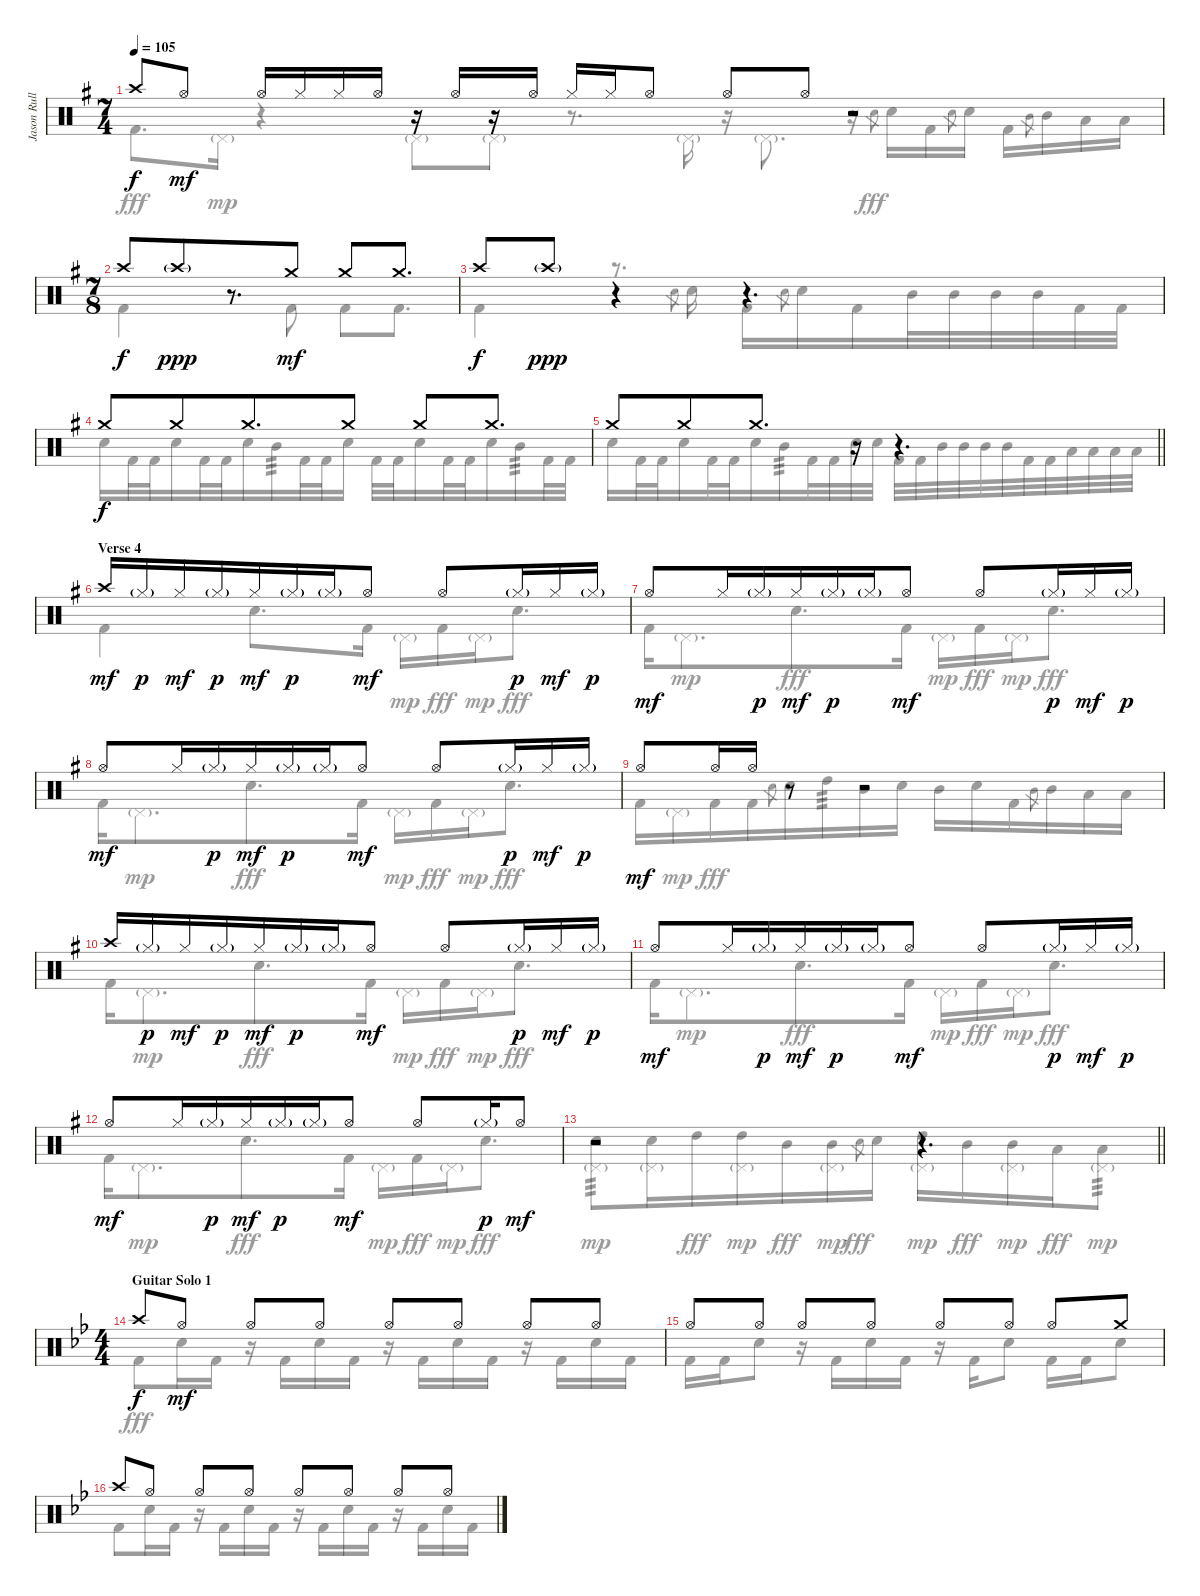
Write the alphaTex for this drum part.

\track ("Jason Rullo Drums" "Jason Rull") {instrument percussion}
\staff {score}
\articulation defaults
\voice
\ts (7 4)
\tempo 105
\clef neutral
\ks eminor "Crash high (hit)".8{dy f} "Hi-Hat (open)".8{dy mf} "Hi-Hat (open)".16 "Hi-Hat (closed)".16 "Hi-Hat (closed)".16 "Hi-Hat (open)".16
r.16 "Hi-Hat (open)".16 r.16 "Hi-Hat (open)".16 "Hi-Hat (closed)".16 "Hi-Hat (closed)".16 "Hi-Hat (open)".8 "Hi-Hat (open)".8 "Hi-Hat (open)".8 r.2 |
\ts (7 8)
"Crash high (hit)".8{dy f} "Crash high (hit)"{g}.8{dy ppp} r.8{d} "Crash medium (hit)".8{dy mf} "Crash medium (hit)".8 "Crash medium (hit)".8{d} |
"Crash high (hit)".8{dy f} "Crash high (hit)"{g}.8{dy ppp} r.4 r.4{d} |
"Crash medium (hit)".8{dy f} "Crash medium (hit)".8 "Crash medium (hit)".8{d} "Crash medium (hit)".8 "Crash medium (hit)".8 "Crash medium (hit)".8{d} |
\barLineRight lightlight "Crash medium (hit)".8 "Crash medium (hit)".8 "Crash medium (hit)".8{d}
r.16 r.4{d} |
\section ("" "Verse 4")
"Crash high (hit)".16{dy mf} "Hi-Hat (closed)"{g}.16{dy p} "Hi-Hat (closed)".16{dy mf} "Hi-Hat (closed)"{g}.16{dy p} "Hi-Hat (closed)".16{dy mf} "Hi-Hat (closed)"{g}.16{dy p} "Hi-Hat (closed)"{g}.16 "Hi-Hat (open)".8{dy mf} "Hi-Hat (open)".8 "Hi-Hat (closed)"{g}.16{dy p} "Hi-Hat (closed)".16{dy mf} "Hi-Hat (closed)"{g}.16{dy p} |
"Hi-Hat (open)".8{dy mf} "Hi-Hat (closed)".16 "Hi-Hat (closed)"{g}.16{dy p} "Hi-Hat (closed)".16{dy mf} "Hi-Hat (closed)"{g}.16{dy p} "Hi-Hat (closed)"{g}.16 "Hi-Hat (open)".8{dy mf} "Hi-Hat (open)".8 "Hi-Hat (closed)"{g}.16{dy p} "Hi-Hat (closed)".16{dy mf} "Hi-Hat (closed)"{g}.16{dy p} |
"Hi-Hat (open)".8{dy mf} "Hi-Hat (closed)".16 "Hi-Hat (closed)"{g}.16{dy p} "Hi-Hat (closed)".16{dy mf} "Hi-Hat (closed)"{g}.16{dy p} "Hi-Hat (closed)"{g}.16 "Hi-Hat (open)".8{dy mf} "Hi-Hat (open)".8 "Hi-Hat (closed)"{g}.16{dy p} "Hi-Hat (closed)".16{dy mf} "Hi-Hat (closed)"{g}.16{dy p} |
"Hi-Hat (open)".8{dy mf} "Hi-Hat (open)".16 "Hi-Hat (open)".16 r.8 r.2 |
"Crash high (hit)".16 "Hi-Hat (closed)"{g}.16{dy p} "Hi-Hat (closed)".16{dy mf} "Hi-Hat (closed)"{g}.16{dy p} "Hi-Hat (closed)".16{dy mf} "Hi-Hat (closed)"{g}.16{dy p} "Hi-Hat (closed)"{g}.16 "Hi-Hat (open)".8{dy mf} "Hi-Hat (open)".8 "Hi-Hat (closed)"{g}.16{dy p} "Hi-Hat (closed)".16{dy mf} "Hi-Hat (closed)"{g}.16{dy p} |
"Hi-Hat (open)".8{dy mf} "Hi-Hat (closed)".16 "Hi-Hat (closed)"{g}.16{dy p} "Hi-Hat (closed)".16{dy mf} "Hi-Hat (closed)"{g}.16{dy p} "Hi-Hat (closed)"{g}.16 "Hi-Hat (open)".8{dy mf} "Hi-Hat (open)".8 "Hi-Hat (closed)"{g}.16{dy p} "Hi-Hat (closed)".16{dy mf} "Hi-Hat (closed)"{g}.16{dy p} |
"Hi-Hat (open)".8{dy mf} "Hi-Hat (closed)".16 "Hi-Hat (closed)"{g}.16{dy p} "Hi-Hat (closed)".16{dy mf} "Hi-Hat (closed)"{g}.16{dy p} "Hi-Hat (closed)"{g}.16 "Hi-Hat (open)".8{dy mf} "Hi-Hat (open)".8 "Hi-Hat (closed)"{g}.16{dy p} "Hi-Hat (open)".8{dy mf} |
\barLineRight lightlight
r.2 r.4{d} |
\ts (4 4)
\section ("" "Guitar Solo 1")
\ks gminor "Crash high (hit)".8{dy f} "Hi-Hat (open)".8{dy mf} "Hi-Hat (open)".8 "Hi-Hat (open)".8 "Hi-Hat (open)".8 "Hi-Hat (open)".8 "Hi-Hat (open)".8 "Hi-Hat (open)".8
|
"Hi-Hat (open)".8 "Hi-Hat (open)".8 "Hi-Hat (open)".8 "Hi-Hat (open)".8 "Hi-Hat (open)".8 "Hi-Hat (open)".8 "Hi-Hat (open)".8 "Crash medium (hit)".8 |
"Crash high (hit)".8 "Hi-Hat (open)".8 "Hi-Hat (open)".8 "Hi-Hat (open)".8 "Hi-Hat (open)".8 "Hi-Hat (open)".8 "Hi-Hat (open)".8 "Hi-Hat (open)".8
\voice
\clef neutral
\ottava regular
\simile none
\ks eminor "Kick (hit) 2".8{d dy fff} "Pedal Hi-Hat (hit)"{g}.16{dy mp}
r.4 "Pedal Hi-Hat (hit)"{g}.8 "Pedal Hi-Hat (hit)"{g}.8 r.8{d} "Pedal Hi-Hat (hit)"{g}.16 r.16 "Pedal Hi-Hat (hit)"{g}.8{d} r.16 "Electric Snare (hit)".8{gr dy fff} "Electric Snare (hit)".16 "Kick (hit) 2".16 "Electric Snare (hit)".8{gr} "Electric Snare (hit)".16 "Kick (hit) 2".16 "Mid Tom (hit)".8{gr} "Mid Tom (hit)".16 "Low Tom (hit)".16 "Low Tom (hit)".16 |
"Kick (hit) 2".4 r.8{d} "Kick (hit) 2".8 "Kick (hit) 2".8 "Kick (hit) 2".8{d} |
"Kick (hit) 2".4 r.8{d} "Electric Snare (hit)".8{gr} "Electric Snare (hit)".16 "Kick (hit) 2".16 "Electric Snare (hit)".8{gr} "Electric Snare (hit)".16 "Kick (hit) 2".16 "Mid Tom (hit)".32 "Mid Tom (hit)".32 "Mid Tom (hit)".32 "Mid Tom (hit)".32 "Kick (hit) 2".32 "Kick (hit) 2".32 |
"Electric Snare (hit)".16 "Kick (hit) 2".32 "Kick (hit) 2".32 "Electric Snare (hit)".16 "Kick (hit) 2".32 "Kick (hit) 2".32 "Electric Snare (hit)".16 "Mid Tom (hit)".16{tp 3} "Kick (hit) 2".32 "Kick (hit) 2".32 "Electric Snare (hit)".16 "Kick (hit) 2".32 "Kick (hit) 2".32 "Electric Snare (hit)".16 "Kick (hit) 2".32 "Kick (hit) 2".32 "Electric Snare (hit)".16 "Mid Tom (hit)".16{tp 3} "Kick (hit) 2".32 "Kick (hit) 2".32 |
\barLineRight lightlight "Electric Snare (hit)".16 "Kick (hit) 2".32 "Kick (hit) 2".32 "Electric Snare (hit)".16 "Kick (hit) 2".32 "Kick (hit) 2".32 "Electric Snare (hit)".16 "Mid Tom (hit)".16{tp 3} "Kick (hit) 2".32 "Kick (hit) 2".32 "Electric Snare (hit)".32 "Electric Snare (hit)".32 "Kick (hit) 2".32 "Kick (hit) 2".32 "Mid Tom (hit)".32 "Mid Tom (hit)".32 "Mid Tom (hit)".32 "Mid Tom (hit)".32 "Kick (hit) 2".32 "Kick (hit) 2".32 "Low Tom (hit)".32 "Low Tom (hit)".32 "Low Tom (hit)".32 "Low Tom (hit)".32
|
"Kick (hit) 2".4 "Electric Snare (hit)".8{d} "Kick (hit) 2".16 "Pedal Hi-Hat (hit)"{g}.16{dy mp} "Kick (hit) 2".16{dy fff} "Pedal Hi-Hat (hit)"{g}.16{dy mp} "Electric Snare (hit)".8{d dy fff} |
"Kick (hit) 2".16 "Pedal Hi-Hat (hit)"{g}.8{d dy mp} "Electric Snare (hit)".8{d dy fff} "Kick (hit) 2".16 "Pedal Hi-Hat (hit)"{g}.16{dy mp} "Kick (hit) 2".16{dy fff} "Pedal Hi-Hat (hit)"{g}.16{dy mp} "Electric Snare (hit)".8{d dy fff} |
"Kick (hit) 2".16 "Pedal Hi-Hat (hit)"{g}.8{d dy mp} "Electric Snare (hit)".8{d dy fff} "Kick (hit) 2".16 "Pedal Hi-Hat (hit)"{g}.16{dy mp} "Kick (hit) 2".16{dy fff} "Pedal Hi-Hat (hit)"{g}.16{dy mp} "Electric Snare (hit)".8{d dy fff} |
"Kick (hit) 2".16 "Pedal Hi-Hat (hit)"{g}.16{dy mp} "Kick (hit) 2".16{dy fff} "Kick (hit) 2".16 "Electric Snare (hit)".8{gr} "Electric Snare (hit)".16 "High Tom (hit)".16{tp 3} "Mid Tom (hit)".16 "Electric Snare (hit)".16 "Mid Tom (hit)".16 "Electric Snare (hit)".16 "Kick (hit) 2".16 "Mid Tom (hit)".8{gr} "Mid Tom (hit)".16 "Low Tom (hit)".16 "Low Tom (hit)".16 |
"Kick (hit) 2".16 "Pedal Hi-Hat (hit)"{g}.8{d dy mp} "Electric Snare (hit)".8{d dy fff} "Kick (hit) 2".16 "Pedal Hi-Hat (hit)"{g}.16{dy mp} "Kick (hit) 2".16{dy fff} "Pedal Hi-Hat (hit)"{g}.16{dy mp} "Electric Snare (hit)".8{d dy fff} |
"Kick (hit) 2".16 "Pedal Hi-Hat (hit)"{g}.8{d dy mp} "Electric Snare (hit)".8{d dy fff} "Kick (hit) 2".16 "Pedal Hi-Hat (hit)"{g}.16{dy mp} "Kick (hit) 2".16{dy fff} "Pedal Hi-Hat (hit)"{g}.16{dy mp} "Electric Snare (hit)".8{d dy fff} |
"Kick (hit) 2".16 "Pedal Hi-Hat (hit)"{g}.8{d dy mp} "Electric Snare (hit)".8{d dy fff} "Kick (hit) 2".16 "Pedal Hi-Hat (hit)"{g}.16{dy mp} "Kick (hit) 2".16{dy fff} "Pedal Hi-Hat (hit)"{g}.16{dy mp} "Electric Snare (hit)".8{d dy fff} |
\barLineRight lightlight
("Electric Snare (hit)" "Pedal Hi-Hat (hit)"{g}).8{tp 3 dy mp} ("Electric Snare (hit)" "Pedal Hi-Hat (hit)"{g}).16 "High Tom (hit)".16{dy fff} ("High Tom (hit)" "Pedal Hi-Hat (hit)"{g}).16{dy mp} "Mid Tom (hit)".16{dy fff} ("Mid Tom (hit)" "Pedal Hi-Hat (hit)"{g}).16{dy mp} "Electric Snare (hit)".8{gr dy fff} "Electric Snare (hit)".16 ("High Tom (hit)" "Pedal Hi-Hat (hit)"{g}).16{dy mp} "Mid Tom (hit)".16{dy fff} ("Mid Tom (hit)" "Pedal Hi-Hat (hit)"{g}).16{dy mp} "Low Tom (hit)".16{dy fff} ("Low Tom (hit)" "Pedal Hi-Hat (hit)"{g}).8{tp 3 dy mp} |
\ks gminor "Kick (hit) 2".8{dy fff} "Electric Snare (hit)".16 "Kick (hit) 2".16
r.16 "Kick (hit) 2".16 "Electric Snare (hit)".16 "Kick (hit) 2".16 r.16 "Kick (hit) 2".16 "Electric Snare (hit)".16 "Kick (hit) 2".16 r.16 "Kick (hit) 2".16 "Electric Snare (hit)".16 "Kick (hit) 2".16 |
"Kick (hit) 2".16 "Kick (hit) 2".16 "Electric Snare (hit)".8 r.16 "Kick (hit) 2".16 "Electric Snare (hit)".16 "Kick (hit) 2".16 r.16 "Kick (hit) 2".16 "Electric Snare (hit)".8 "Kick (hit) 2".16 "Kick (hit) 2".16 "Electric Snare (hit)".8 |
"Kick (hit) 2".8 "Electric Snare (hit)".16 "Kick (hit) 2".16 r.16 "Kick (hit) 2".16 "Electric Snare (hit)".16 "Kick (hit) 2".16 r.16 "Kick (hit) 2".16 "Electric Snare (hit)".16 "Kick (hit) 2".16 r.16 "Kick (hit) 2".16 "Electric Snare (hit)".16 "Kick (hit) 2".16
